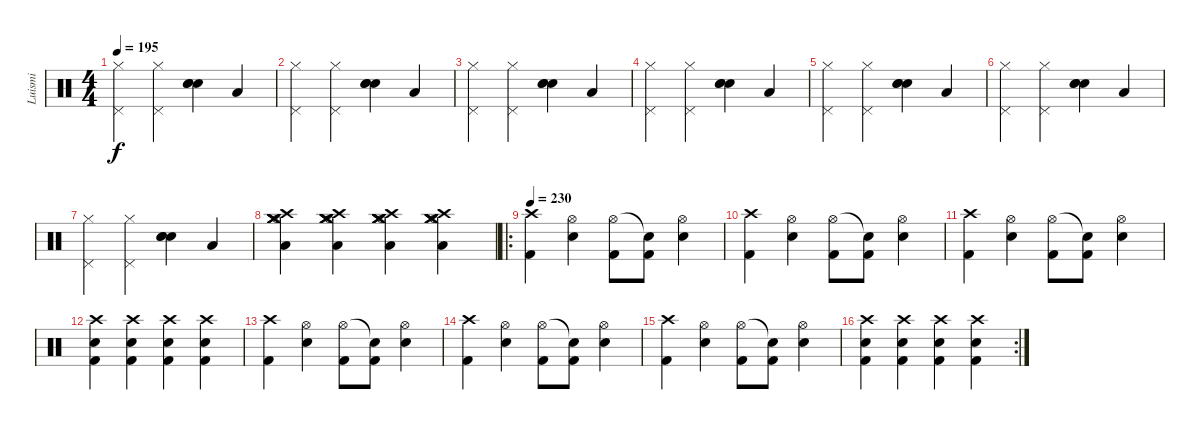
\track ("Luismi" "Luismi") {instrument percussion}
\staff {score}
\articulation defaults
\ts (4 4)
\tempo 195
\clef neutral
\ks c
("Pedal Hi-Hat (hit)" "Hi-Hat (closed)").4{dy f} ("Pedal Hi-Hat (hit)" "Hi-Hat (closed)").4 ("Electric Snare (hit)" "Electric Snare (hit)" "Electric Snare (hit)").4 "Low Floor Tom (hit)".4 |
("Pedal Hi-Hat (hit)" "Hi-Hat (closed)").4 ("Pedal Hi-Hat (hit)" "Hi-Hat (closed)").4 ("Electric Snare (hit)" "Electric Snare (hit)" "Electric Snare (hit)").4 "Low Floor Tom (hit)".4 |
("Pedal Hi-Hat (hit)" "Hi-Hat (closed)").4 ("Pedal Hi-Hat (hit)" "Hi-Hat (closed)").4 ("Electric Snare (hit)" "Electric Snare (hit)" "Electric Snare (hit)").4 "Low Floor Tom (hit)".4 |
("Pedal Hi-Hat (hit)" "Hi-Hat (closed)").4 ("Pedal Hi-Hat (hit)" "Hi-Hat (closed)").4 ("Electric Snare (hit)" "Electric Snare (hit)" "Electric Snare (hit)").4 "Low Floor Tom (hit)".4 |
("Pedal Hi-Hat (hit)" "Hi-Hat (closed)").4 ("Pedal Hi-Hat (hit)" "Hi-Hat (closed)").4 ("Electric Snare (hit)" "Electric Snare (hit)" "Electric Snare (hit)").4 "Low Floor Tom (hit)".4 |
("Pedal Hi-Hat (hit)" "Hi-Hat (closed)").4 ("Pedal Hi-Hat (hit)" "Hi-Hat (closed)").4 ("Electric Snare (hit)" "Electric Snare (hit)" "Electric Snare (hit)").4 "Low Floor Tom (hit)".4 |
("Pedal Hi-Hat (hit)" "Hi-Hat (closed)").4 ("Pedal Hi-Hat (hit)" "Hi-Hat (closed)").4 ("Electric Snare (hit)" "Electric Snare (hit)" "Electric Snare (hit)").4 "Low Floor Tom (hit)".4 |
("Crash high (hit)" "Low Floor Tom (hit)" "Crash medium (hit)" "Hi-Hat (open)" "Crash medium (hit)" "Crash medium (hit)").4 ("Crash high (hit)" "Low Floor Tom (hit)" "Crash medium (hit)" "Hi-Hat (open)" "Crash medium (hit)" "Crash medium (hit)").4 ("Crash high (hit)" "Low Floor Tom (hit)" "Crash medium (hit)" "Hi-Hat (open)" "Crash medium (hit)" "Crash medium (hit)").4 ("Crash high (hit)" "Low Floor Tom (hit)" "Crash medium (hit)" "Hi-Hat (open)" "Crash medium (hit)" "Crash medium (hit)").4 |
\ro
\tempo 230
("Crash high (hit)" "Kick (hit) 2").4 ("Hi-Hat (open)" "Snare (hit) 2").4 ("Hi-Hat (open)" "Kick (hit) 2").8 ("Snare (hit)"{t} "Kick (hit) 2").8 ("Hi-Hat (open)" "Snare (hit) 2").4 |
("Crash high (hit)" "Kick (hit) 2").4 ("Hi-Hat (open)" "Snare (hit) 2").4 ("Hi-Hat (open)" "Kick (hit) 2").8 ("Snare (hit)"{t} "Kick (hit) 2").8 ("Hi-Hat (open)" "Snare (hit) 2").4 |
("Crash high (hit)" "Kick (hit) 2").4 ("Hi-Hat (open)" "Snare (hit) 2").4 ("Hi-Hat (open)" "Kick (hit) 2").8 ("Snare (hit)"{t} "Kick (hit) 2").8 ("Hi-Hat (open)" "Snare (hit) 2").4 |
("Crash high (hit)" "Snare (hit) 2" "Kick (hit) 2").4 ("Crash high (hit)" "Snare (hit) 2" "Kick (hit) 2").4 ("Crash high (hit)" "Snare (hit) 2" "Kick (hit) 2").4 ("Crash high (hit)" "Snare (hit) 2" "Kick (hit) 2").4 |
("Crash high (hit)" "Kick (hit) 2").4 ("Hi-Hat (open)" "Snare (hit) 2").4 ("Hi-Hat (open)" "Kick (hit) 2").8 ("Snare (hit)"{t} "Kick (hit) 2").8 ("Hi-Hat (open)" "Snare (hit) 2").4 |
("Crash high (hit)" "Kick (hit) 2").4 ("Hi-Hat (open)" "Snare (hit) 2").4 ("Hi-Hat (open)" "Kick (hit) 2").8 ("Snare (hit)"{t} "Kick (hit) 2").8 ("Hi-Hat (open)" "Snare (hit) 2").4 |
("Crash high (hit)" "Kick (hit) 2").4 ("Hi-Hat (open)" "Snare (hit) 2").4 ("Hi-Hat (open)" "Kick (hit) 2").8 ("Snare (hit)"{t} "Kick (hit) 2").8 ("Hi-Hat (open)" "Snare (hit) 2").4 |
\rc 2
("Crash high (hit)" "Snare (hit) 2" "Kick (hit) 2").4 ("Crash high (hit)" "Snare (hit) 2" "Kick (hit) 2").4 ("Crash high (hit)" "Snare (hit) 2" "Kick (hit) 2").4 ("Crash high (hit)" "Snare (hit) 2" "Kick (hit) 2").4
